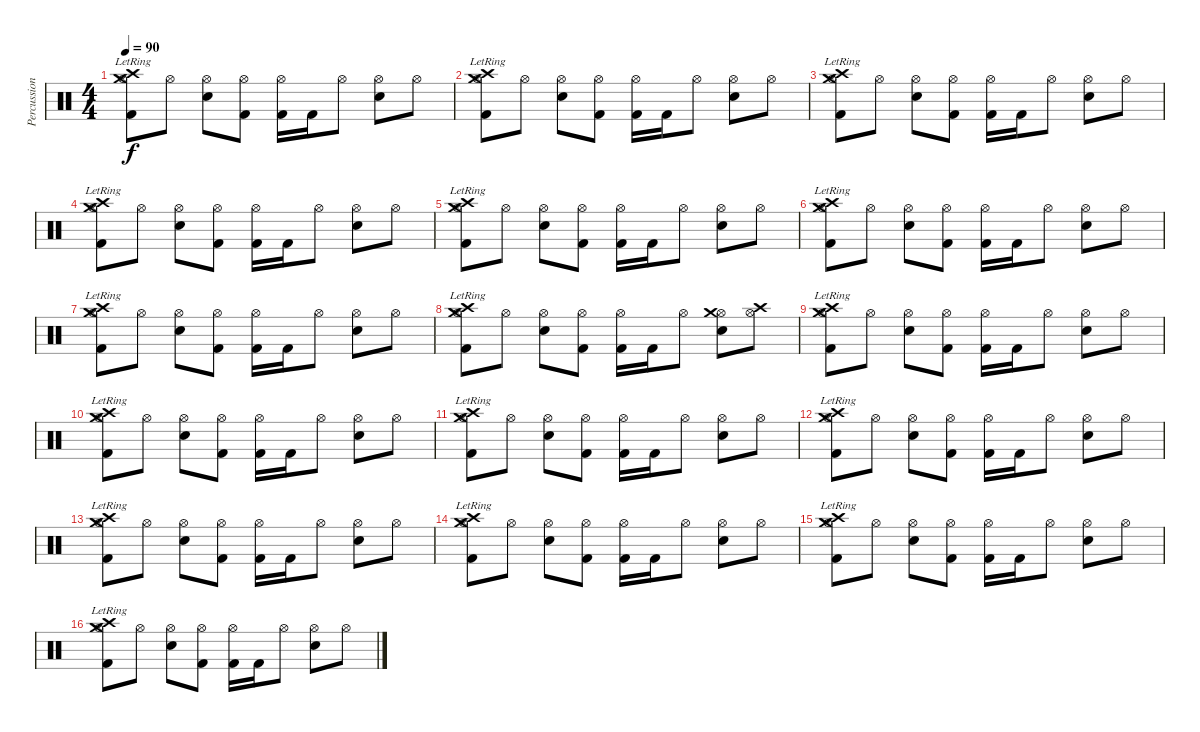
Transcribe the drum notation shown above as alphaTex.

\track ("Percussions" "Percussion") {instrument percussion}
\staff {score}
\articulation defaults
\ts (4 4)
\tempo 90
\clef neutral
\ks c
("Kick (hit) 2" "Hi-Hat (open)" "Crash medium (hit)"{lr} "Crash high (hit)").8{dy f} "Hi-Hat (open)".8 ("Snare (hit) 2" "Hi-Hat (open)").8 ("Kick (hit) 2" "Hi-Hat (open)").8 ("Kick (hit) 2" "Hi-Hat (open)").16 "Kick (hit) 2".16 "Hi-Hat (open)".8 ("Snare (hit) 2" "Hi-Hat (open)").8 "Hi-Hat (open)".8 |
("Kick (hit) 2" "Hi-Hat (open)" "Crash medium (hit)"{lr} "Crash high (hit)").8 "Hi-Hat (open)".8 ("Snare (hit) 2" "Hi-Hat (open)").8 ("Kick (hit) 2" "Hi-Hat (open)").8 ("Kick (hit) 2" "Hi-Hat (open)").16 "Kick (hit) 2".16 "Hi-Hat (open)".8 ("Snare (hit) 2" "Hi-Hat (open)").8 "Hi-Hat (open)".8 |
("Kick (hit) 2" "Hi-Hat (open)" "Crash medium (hit)"{lr} "Crash high (hit)").8 "Hi-Hat (open)".8 ("Snare (hit) 2" "Hi-Hat (open)").8 ("Kick (hit) 2" "Hi-Hat (open)").8 ("Kick (hit) 2" "Hi-Hat (open)").16 "Kick (hit) 2".16 "Hi-Hat (open)".8 ("Snare (hit) 2" "Hi-Hat (open)").8 "Hi-Hat (open)".8 |
("Kick (hit) 2" "Hi-Hat (open)" "Crash medium (hit)"{lr} "Crash high (hit)").8 "Hi-Hat (open)".8 ("Snare (hit) 2" "Hi-Hat (open)").8 ("Kick (hit) 2" "Hi-Hat (open)").8 ("Kick (hit) 2" "Hi-Hat (open)").16 "Kick (hit) 2".16 "Hi-Hat (open)".8 ("Snare (hit) 2" "Hi-Hat (open)").8 "Hi-Hat (open)".8 |
("Kick (hit) 2" "Hi-Hat (open)" "Crash medium (hit)"{lr} "Crash high (hit)").8 "Hi-Hat (open)".8 ("Snare (hit) 2" "Hi-Hat (open)").8 ("Kick (hit) 2" "Hi-Hat (open)").8 ("Kick (hit) 2" "Hi-Hat (open)").16 "Kick (hit) 2".16 "Hi-Hat (open)".8 ("Snare (hit) 2" "Hi-Hat (open)").8 "Hi-Hat (open)".8 |
("Kick (hit) 2" "Hi-Hat (open)" "Crash medium (hit)"{lr} "Crash high (hit)").8 "Hi-Hat (open)".8 ("Snare (hit) 2" "Hi-Hat (open)").8 ("Kick (hit) 2" "Hi-Hat (open)").8 ("Kick (hit) 2" "Hi-Hat (open)").16 "Kick (hit) 2".16 "Hi-Hat (open)".8 ("Snare (hit) 2" "Hi-Hat (open)").8 "Hi-Hat (open)".8 |
("Kick (hit) 2" "Hi-Hat (open)" "Crash medium (hit)"{lr} "Crash high (hit)").8 "Hi-Hat (open)".8 ("Snare (hit) 2" "Hi-Hat (open)").8 ("Kick (hit) 2" "Hi-Hat (open)").8 ("Kick (hit) 2" "Hi-Hat (open)").16 "Kick (hit) 2".16 "Hi-Hat (open)".8 ("Snare (hit) 2" "Hi-Hat (open)").8 "Hi-Hat (open)".8 |
("Kick (hit) 2" "Hi-Hat (open)" "Crash medium (hit)"{lr} "Crash high (hit)").8 "Hi-Hat (open)".8 ("Snare (hit) 2" "Hi-Hat (open)").8 ("Kick (hit) 2" "Hi-Hat (open)").8 ("Kick (hit) 2" "Hi-Hat (open)").16 "Kick (hit) 2".16 "Hi-Hat (open)".8 ("Snare (hit) 2" "Hi-Hat (open)" "Crash medium (hit)").8 ("Hi-Hat (open)" "Crash high (hit)").8 |
("Kick (hit) 2" "Hi-Hat (open)" "Crash medium (hit)"{lr} "Crash high (hit)").8 "Hi-Hat (open)".8 ("Snare (hit) 2" "Hi-Hat (open)").8 ("Kick (hit) 2" "Hi-Hat (open)").8 ("Kick (hit) 2" "Hi-Hat (open)").16 "Kick (hit) 2".16 "Hi-Hat (open)".8 ("Snare (hit) 2" "Hi-Hat (open)").8 "Hi-Hat (open)".8 |
("Kick (hit) 2" "Hi-Hat (open)" "Crash medium (hit)"{lr} "Crash high (hit)").8 "Hi-Hat (open)".8 ("Snare (hit) 2" "Hi-Hat (open)").8 ("Kick (hit) 2" "Hi-Hat (open)").8 ("Kick (hit) 2" "Hi-Hat (open)").16 "Kick (hit) 2".16 "Hi-Hat (open)".8 ("Snare (hit) 2" "Hi-Hat (open)").8 "Hi-Hat (open)".8 |
("Kick (hit) 2" "Hi-Hat (open)" "Crash medium (hit)"{lr} "Crash high (hit)").8 "Hi-Hat (open)".8 ("Snare (hit) 2" "Hi-Hat (open)").8 ("Kick (hit) 2" "Hi-Hat (open)").8 ("Kick (hit) 2" "Hi-Hat (open)").16 "Kick (hit) 2".16 "Hi-Hat (open)".8 ("Snare (hit) 2" "Hi-Hat (open)").8 "Hi-Hat (open)".8 |
("Kick (hit) 2" "Hi-Hat (open)" "Crash medium (hit)"{lr} "Crash high (hit)").8 "Hi-Hat (open)".8 ("Snare (hit) 2" "Hi-Hat (open)").8 ("Kick (hit) 2" "Hi-Hat (open)").8 ("Kick (hit) 2" "Hi-Hat (open)").16 "Kick (hit) 2".16 "Hi-Hat (open)".8 ("Snare (hit) 2" "Hi-Hat (open)").8 "Hi-Hat (open)".8 |
("Kick (hit) 2" "Hi-Hat (open)" "Crash medium (hit)"{lr} "Crash high (hit)").8 "Hi-Hat (open)".8 ("Snare (hit) 2" "Hi-Hat (open)").8 ("Kick (hit) 2" "Hi-Hat (open)").8 ("Kick (hit) 2" "Hi-Hat (open)").16 "Kick (hit) 2".16 "Hi-Hat (open)".8 ("Snare (hit) 2" "Hi-Hat (open)").8 "Hi-Hat (open)".8 |
("Kick (hit) 2" "Hi-Hat (open)" "Crash medium (hit)"{lr} "Crash high (hit)").8 "Hi-Hat (open)".8 ("Snare (hit) 2" "Hi-Hat (open)").8 ("Kick (hit) 2" "Hi-Hat (open)").8 ("Kick (hit) 2" "Hi-Hat (open)").16 "Kick (hit) 2".16 "Hi-Hat (open)".8 ("Snare (hit) 2" "Hi-Hat (open)").8 "Hi-Hat (open)".8 |
("Kick (hit) 2" "Hi-Hat (open)" "Crash medium (hit)"{lr} "Crash high (hit)").8 "Hi-Hat (open)".8 ("Snare (hit) 2" "Hi-Hat (open)").8 ("Kick (hit) 2" "Hi-Hat (open)").8 ("Kick (hit) 2" "Hi-Hat (open)").16 "Kick (hit) 2".16 "Hi-Hat (open)".8 ("Snare (hit) 2" "Hi-Hat (open)").8 "Hi-Hat (open)".8 |
("Kick (hit) 2" "Hi-Hat (open)" "Crash medium (hit)"{lr} "Crash high (hit)").8 "Hi-Hat (open)".8 ("Snare (hit) 2" "Hi-Hat (open)").8 ("Kick (hit) 2" "Hi-Hat (open)").8 ("Kick (hit) 2" "Hi-Hat (open)").16 "Kick (hit) 2".16 "Hi-Hat (open)".8 ("Snare (hit) 2" "Hi-Hat (open)").8 "Hi-Hat (open)".8
